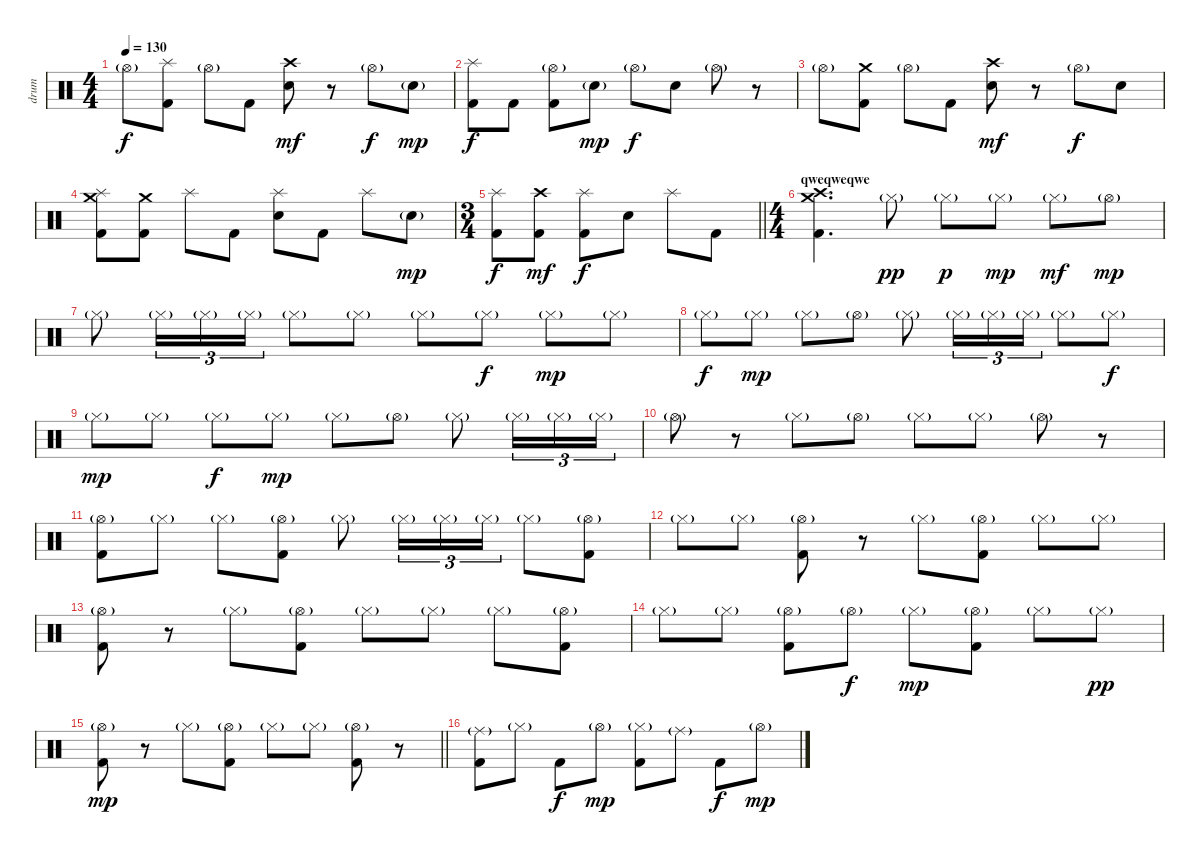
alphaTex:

\track ("drum" "drum") {instrument percussion}
\staff {score}
\articulation defaults
\ts (4 4)
\tempo 130
\clef neutral
\ks c "Hi-Hat (open)"{g}.8{dy f}
("Splash (hit)" "Kick (hit) 2").8 "Hi-Hat (open)"{g}.8 "Kick (hit) 2".8 ("Crash high (hit)" "Electric Snare (hit)").8{dy mf} r.8 "Hi-Hat (open)"{g}.8{dy f} "Electric Snare (hit)"{g}.8{dy mp} |
("Splash (hit)" "Kick (hit) 2").8{dy f} "Kick (hit) 2".8 ("Hi-Hat (open)"{g} "Kick (hit) 2").8 "Electric Snare (hit)"{g}.8{dy mp} "Hi-Hat (open)"{g}.8{dy f} "Electric Snare (hit)".8 "Hi-Hat (open)"{g}.8 r.8 |
"Hi-Hat (open)"{g}.8 ("Crash medium (hit)" "Kick (hit) 2").8 "Hi-Hat (open)"{g}.8 "Kick (hit) 2".8 ("Crash high (hit)" "Electric Snare (hit)").8{dy mf} r.8 "Hi-Hat (open)"{g}.8{dy f} "Electric Snare (hit)".8 |
("Crash medium (hit)" "Splash (hit)" "Kick (hit) 2").8 ("Crash medium (hit)" "Kick (hit) 2").8 "Splash (hit)".8 "Kick (hit) 2".8 ("Splash (hit)" "Electric Snare (hit)").8 "Kick (hit) 2".8 "Splash (hit)".8 "Electric Snare (hit)"{g}.8{dy mp} |
\ts (3 4)
\barLineRight lightlight
("Splash (hit)" "Kick (hit) 2").8{dy f} ("Crash high (hit)" "Kick (hit) 2").8{dy mf} ("Splash (hit)" "Kick (hit) 2").8{dy f} "Electric Snare (hit)".8 "Splash (hit)".8 "Kick (hit) 2".8 |
\ts (4 4)
\section ("" "qweqweqwe")
("Crash medium (hit)" "Crash high (hit)" "Kick (hit) 2").4{d} "Hi-Hat (closed)"{g}.8{dy pp} "Hi-Hat (closed)"{g}.8{dy p} "Hi-Hat (closed)"{g}.8{dy mp} "Hi-Hat (closed)"{g}.8{dy mf} "Hi-Hat (open)"{g}.8{dy mp} |
"Hi-Hat (closed)"{g}.8 "Hi-Hat (closed)"{g}.16{tu (3 2)} "Hi-Hat (closed)"{g}.16{tu (3 2)} "Hi-Hat (closed)"{g}.16{tu (3 2)} "Hi-Hat (closed)"{g}.8 "Hi-Hat (closed)"{g}.8 "Hi-Hat (closed)"{g}.8 "Hi-Hat (closed)"{g}.8{dy f} "Hi-Hat (closed)"{g}.8{dy mp} "Hi-Hat (closed)"{g}.8 |
"Hi-Hat (closed)"{g}.8{dy f} "Hi-Hat (closed)"{g}.8{dy mp} "Hi-Hat (closed)"{g}.8 "Hi-Hat (open)"{g}.8 "Hi-Hat (closed)"{g}.8 "Hi-Hat (closed)"{g}.16{tu (3 2)} "Hi-Hat (closed)"{g}.16{tu (3 2)} "Hi-Hat (closed)"{g}.16{tu (3 2)} "Hi-Hat (closed)"{g}.8 "Hi-Hat (closed)"{g}.8{dy f} |
"Hi-Hat (closed)"{g}.8{dy mp} "Hi-Hat (closed)"{g}.8 "Hi-Hat (closed)"{g}.8{dy f} "Hi-Hat (closed)"{g}.8{dy mp} "Hi-Hat (closed)"{g}.8 "Hi-Hat (open)"{g}.8 "Hi-Hat (closed)"{g}.8 "Hi-Hat (closed)"{g}.16{tu (3 2)} "Hi-Hat (closed)"{g}.16{tu (3 2)} "Hi-Hat (closed)"{g}.16{tu (3 2)} |
"Hi-Hat (open)"{g}.8 r.8 "Hi-Hat (closed)"{g}.8 "Hi-Hat (open)"{g}.8 "Hi-Hat (closed)"{g}.8 "Hi-Hat (closed)"{g}.8 "Hi-Hat (open)"{g}.8 r.8 |
("Hi-Hat (open)"{g} "Kick (hit) 2").8 "Hi-Hat (closed)"{g}.8 "Hi-Hat (closed)"{g}.8 ("Hi-Hat (open)"{g} "Kick (hit) 2").8 "Hi-Hat (closed)"{g}.8 "Hi-Hat (closed)"{g}.16{tu (3 2)} "Hi-Hat (closed)"{g}.16{tu (3 2)} "Hi-Hat (closed)"{g}.16{tu (3 2)} "Hi-Hat (closed)"{g}.8 ("Hi-Hat (open)"{g} "Kick (hit) 2").8 |
"Hi-Hat (closed)"{g}.8 "Hi-Hat (closed)"{g}.8 ("Hi-Hat (open)"{g} "Kick (hit) 2").8 r.8 "Hi-Hat (closed)"{g}.8 ("Hi-Hat (open)"{g} "Kick (hit) 2").8 "Hi-Hat (closed)"{g}.8 "Hi-Hat (closed)"{g}.8 |
("Hi-Hat (open)"{g} "Kick (hit) 2").8 r.8 "Hi-Hat (closed)"{g}.8 ("Hi-Hat (open)"{g} "Kick (hit) 2").8 "Hi-Hat (closed)"{g}.8 "Hi-Hat (closed)"{g}.8 "Hi-Hat (closed)"{g}.8 ("Hi-Hat (open)"{g} "Kick (hit) 2").8 |
"Hi-Hat (closed)"{g}.8 "Hi-Hat (closed)"{g}.8 ("Hi-Hat (open)"{g} "Kick (hit) 2").8 "Hi-Hat (open)"{g}.8{dy f} "Hi-Hat (closed)"{g}.8{dy mp} ("Hi-Hat (open)"{g} "Kick (hit) 2").8 "Hi-Hat (closed)"{g}.8 "Hi-Hat (closed)"{g}.8{dy pp} |
\barLineRight lightlight
("Hi-Hat (open)"{g} "Kick (hit) 2").8{dy mp} r.8 "Hi-Hat (closed)"{g}.8 ("Hi-Hat (open)"{g} "Kick (hit) 2").8 "Hi-Hat (closed)"{g}.8 "Hi-Hat (closed)"{g}.8 ("Hi-Hat (open)"{g} "Kick (hit) 2").8 r.8 |
("Ride (middle)"{g} "Kick (hit) 2").8 "Hi-Hat (closed)"{g}.8 "Kick (hit) 2".8{dy f} "Hi-Hat (open)"{g}.8{dy mp} ("Hi-Hat (closed)"{g} "Kick (hit) 2").8 "Ride (middle)"{g}.8 "Kick (hit) 2".8{dy f} "Hi-Hat (open)"{g}.8{dy mp}
